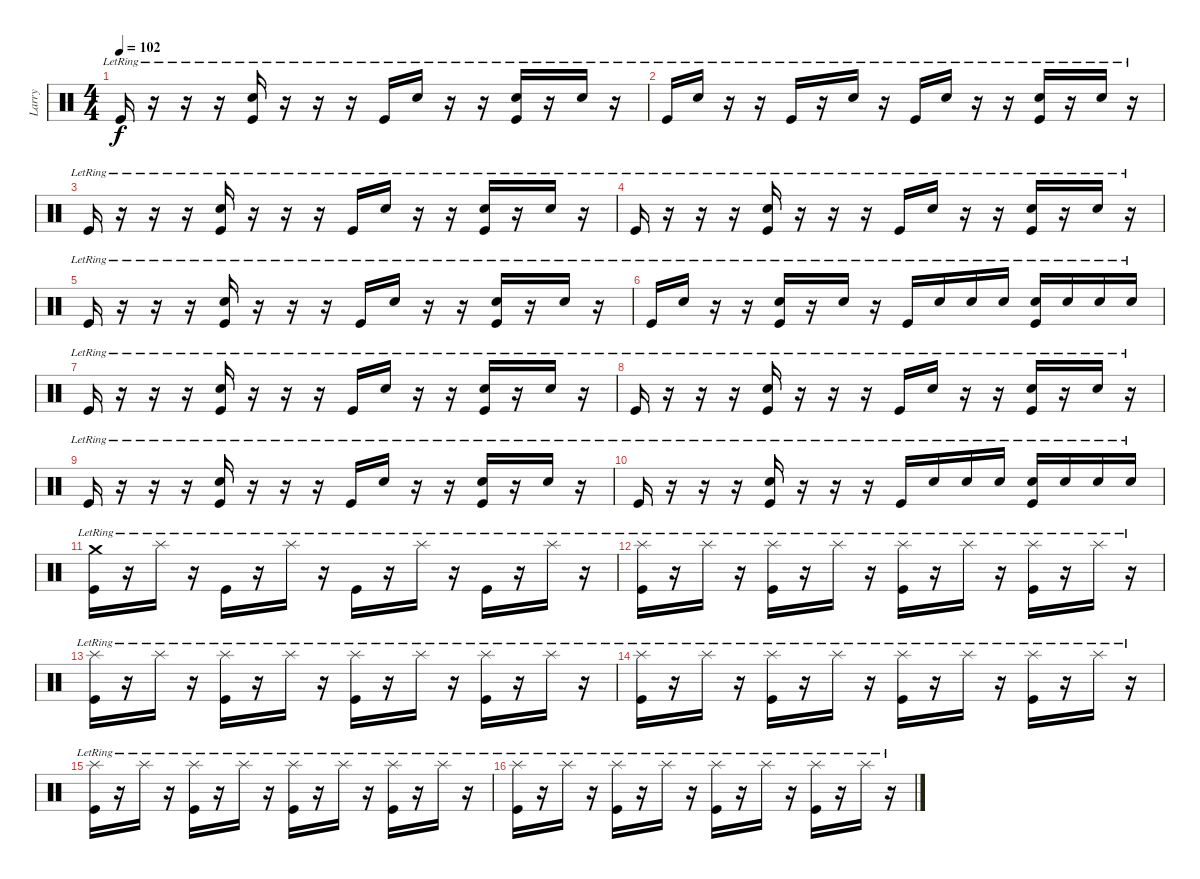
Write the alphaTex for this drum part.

\track ("Larry" "Larry") {instrument percussion}
\staff {score}
\articulation defaults
\ts (4 4)
\tempo 102
\clef neutral
\ks c "Kick (hit)"{lr}.16{dy f}
r.16 r.16 r.16 ("Snare (hit) 2"{lr} "Kick (hit)"{lr}).16 r.16 r.16 r.16 "Kick (hit)"{lr}.16 "Snare (hit) 2"{lr}.16 r.16 r.16 ("Snare (hit) 2"{lr} "Kick (hit)"{lr}).16 r.16 "Snare (hit) 2"{lr}.16 r.16 |
"Kick (hit)"{lr}.16 "Snare (hit) 2"{lr}.16 r.16 r.16 "Kick (hit)"{lr}.16 r.16 "Snare (hit) 2"{lr}.16 r.16 "Kick (hit)"{lr}.16 "Snare (hit) 2"{lr}.16 r.16 r.16 ("Snare (hit) 2"{lr} "Kick (hit)"{lr}).16 r.16 "Snare (hit) 2"{lr}.16 r.16 |
"Kick (hit)"{lr}.16 r.16 r.16 r.16 ("Snare (hit) 2"{lr} "Kick (hit)"{lr}).16 r.16 r.16 r.16 "Kick (hit)"{lr}.16 "Snare (hit) 2"{lr}.16 r.16 r.16 ("Snare (hit) 2"{lr} "Kick (hit)"{lr}).16 r.16 "Snare (hit) 2"{lr}.16 r.16 |
"Kick (hit)"{lr}.16 r.16 r.16 r.16 ("Snare (hit) 2"{lr} "Kick (hit)"{lr}).16 r.16 r.16 r.16 "Kick (hit)"{lr}.16 "Snare (hit) 2"{lr}.16 r.16 r.16 ("Snare (hit) 2"{lr} "Kick (hit)"{lr}).16 r.16 "Snare (hit) 2"{lr}.16 r.16 |
"Kick (hit)"{lr}.16 r.16 r.16 r.16 ("Snare (hit) 2"{lr} "Kick (hit)"{lr}).16 r.16 r.16 r.16 "Kick (hit)"{lr}.16 "Snare (hit) 2"{lr}.16 r.16 r.16 ("Snare (hit) 2"{lr} "Kick (hit)"{lr}).16 r.16 "Snare (hit) 2"{lr}.16 r.16 |
"Kick (hit)"{lr}.16 "Snare (hit) 2"{lr}.16 r.16 r.16 ("Snare (hit) 2"{lr} "Kick (hit)"{lr}).16 r.16 "Snare (hit) 2"{lr}.16 r.16 "Kick (hit)"{lr}.16 "Snare (hit) 2"{lr}.16 "Snare (hit) 2"{lr}.16 "Snare (hit) 2"{lr}.16 ("Snare (hit) 2"{lr} "Kick (hit)"{lr}).16 "Snare (hit) 2"{lr}.16 "Snare (hit) 2"{lr}.16 "Snare (hit) 2"{lr}.16 |
"Kick (hit)"{lr}.16 r.16 r.16 r.16 ("Snare (hit) 2"{lr} "Kick (hit)"{lr}).16 r.16 r.16 r.16 "Kick (hit)"{lr}.16 "Snare (hit) 2"{lr}.16 r.16 r.16 ("Snare (hit) 2"{lr} "Kick (hit)"{lr}).16 r.16 "Snare (hit) 2"{lr}.16 r.16 |
"Kick (hit)"{lr}.16 r.16 r.16 r.16 ("Snare (hit) 2"{lr} "Kick (hit)"{lr}).16 r.16 r.16 r.16 "Kick (hit)"{lr}.16 "Snare (hit) 2"{lr}.16 r.16 r.16 ("Snare (hit) 2"{lr} "Kick (hit)"{lr}).16 r.16 "Snare (hit) 2"{lr}.16 r.16 |
"Kick (hit)"{lr}.16 r.16 r.16 r.16 ("Snare (hit) 2"{lr} "Kick (hit)"{lr}).16 r.16 r.16 r.16 "Kick (hit)"{lr}.16 "Snare (hit) 2"{lr}.16 r.16 r.16 ("Snare (hit) 2"{lr} "Kick (hit)"{lr}).16 r.16 "Snare (hit) 2"{lr}.16 r.16 |
"Kick (hit)"{lr}.16 r.16 r.16 r.16 ("Snare (hit) 2"{lr} "Kick (hit)"{lr}).16 r.16 r.16 r.16 "Kick (hit)"{lr}.16 "Snare (hit) 2"{lr}.16 "Snare (hit) 2"{lr}.16 "Snare (hit) 2"{lr}.16 ("Snare (hit) 2"{lr} "Kick (hit)"{lr}).16 "Snare (hit) 2"{lr}.16 "Snare (hit) 2"{lr}.16 "Snare (hit) 2"{lr}.16 |
("Crash medium (hit)"{lr} "Kick (hit)"{lr}).16 r.16 "Splash (hit)"{lr}.16 r.16 "Kick (hit)"{lr}.16 r.16 "Splash (hit)"{lr}.16 r.16 "Kick (hit)"{lr}.16 r.16 "Splash (hit)"{lr}.16 r.16 "Kick (hit)"{lr}.16 r.16 "Splash (hit)"{lr}.16 r.16 |
("Splash (hit)"{lr} "Kick (hit)"{lr}).16 r.16 "Splash (hit)"{lr}.16 r.16 ("Splash (hit)"{lr} "Kick (hit)"{lr}).16 r.16 "Splash (hit)"{lr}.16 r.16 ("Splash (hit)"{lr} "Kick (hit)"{lr}).16 r.16 "Splash (hit)"{lr}.16 r.16 ("Splash (hit)"{lr} "Kick (hit)"{lr}).16 r.16 "Splash (hit)"{lr}.16 r.16 |
("Splash (hit)"{lr} "Kick (hit)"{lr}).16 r.16 "Splash (hit)"{lr}.16 r.16 ("Splash (hit)"{lr} "Kick (hit)"{lr}).16 r.16 "Splash (hit)"{lr}.16 r.16 ("Splash (hit)"{lr} "Kick (hit)"{lr}).16 r.16 "Splash (hit)"{lr}.16 r.16 ("Splash (hit)"{lr} "Kick (hit)"{lr}).16 r.16 "Splash (hit)"{lr}.16 r.16 |
("Splash (hit)"{lr} "Kick (hit)"{lr}).16 r.16 "Splash (hit)"{lr}.16 r.16 ("Splash (hit)"{lr} "Kick (hit)"{lr}).16 r.16 "Splash (hit)"{lr}.16 r.16 ("Splash (hit)"{lr} "Kick (hit)"{lr}).16 r.16 "Splash (hit)"{lr}.16 r.16 ("Splash (hit)"{lr} "Kick (hit)"{lr}).16 r.16 "Splash (hit)"{lr}.16 r.16 |
("Splash (hit)"{lr} "Kick (hit)"{lr}).16 r.16 "Splash (hit)"{lr}.16 r.16 ("Splash (hit)"{lr} "Kick (hit)"{lr}).16 r.16 "Splash (hit)"{lr}.16 r.16 ("Splash (hit)"{lr} "Kick (hit)"{lr}).16 r.16 "Splash (hit)"{lr}.16 r.16 ("Splash (hit)"{lr} "Kick (hit)"{lr}).16 r.16 "Splash (hit)"{lr}.16 r.16 |
("Splash (hit)"{lr} "Kick (hit)"{lr}).16 r.16 "Splash (hit)"{lr}.16 r.16 ("Splash (hit)"{lr} "Kick (hit)"{lr}).16 r.16 "Splash (hit)"{lr}.16 r.16 ("Splash (hit)"{lr} "Kick (hit)"{lr}).16 r.16 "Splash (hit)"{lr}.16 r.16 ("Splash (hit)"{lr} "Kick (hit)"{lr}).16 r.16 "Splash (hit)"{lr}.16 r.16
